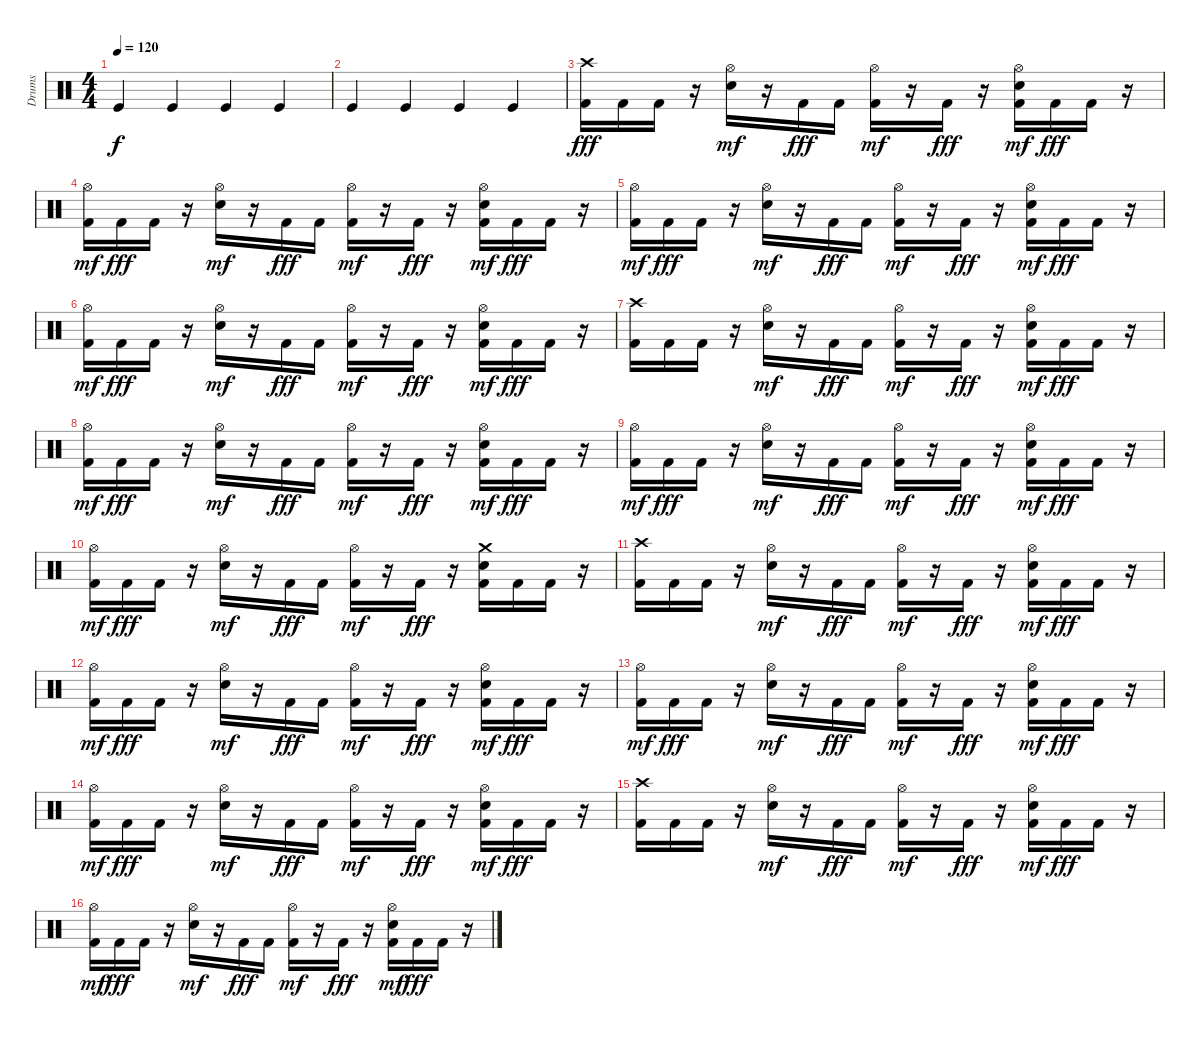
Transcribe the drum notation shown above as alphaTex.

\track ("Drums" "Drums") {instrument percussion}
\staff {score}
\articulation defaults
\ts (4 4)
\tempo 120
\clef neutral
\ks c "Kick (hit)".4{dy f} "Kick (hit)".4 "Kick (hit)".4 "Kick (hit)".4
|
"Kick (hit)".4 "Kick (hit)".4 "Kick (hit)".4 "Kick (hit)".4 |
("Kick (hit) 2" "Crash high (hit)").16{dy fff} "Kick (hit) 2".16 "Kick (hit) 2".16 r.16 ("Electric Snare (hit)" "Hi-Hat (open)").16{dy mf} r.16 "Kick (hit) 2".16{dy fff} "Kick (hit) 2".16 ("Kick (hit) 2" "Hi-Hat (open)").16{dy mf} r.16 "Kick (hit) 2".16{dy fff} r.16 ("Electric Snare (hit)" "Kick (hit) 2" "Hi-Hat (open)").16{dy mf} "Kick (hit) 2".16{dy fff} "Kick (hit) 2".16 r.16 |
("Kick (hit) 2" "Hi-Hat (open)").16{dy mf} "Kick (hit) 2".16{dy fff} "Kick (hit) 2".16 r.16 ("Electric Snare (hit)" "Hi-Hat (open)").16{dy mf} r.16 "Kick (hit) 2".16{dy fff} "Kick (hit) 2".16 ("Kick (hit) 2" "Hi-Hat (open)").16{dy mf} r.16 "Kick (hit) 2".16{dy fff} r.16 ("Electric Snare (hit)" "Kick (hit) 2" "Hi-Hat (open)").16{dy mf} "Kick (hit) 2".16{dy fff} "Kick (hit) 2".16 r.16 |
("Kick (hit) 2" "Hi-Hat (open)").16{dy mf} "Kick (hit) 2".16{dy fff} "Kick (hit) 2".16 r.16 ("Electric Snare (hit)" "Hi-Hat (open)").16{dy mf} r.16 "Kick (hit) 2".16{dy fff} "Kick (hit) 2".16 ("Kick (hit) 2" "Hi-Hat (open)").16{dy mf} r.16 "Kick (hit) 2".16{dy fff} r.16 ("Electric Snare (hit)" "Kick (hit) 2" "Hi-Hat (open)").16{dy mf} "Kick (hit) 2".16{dy fff} "Kick (hit) 2".16 r.16 |
("Kick (hit) 2" "Hi-Hat (open)").16{dy mf} "Kick (hit) 2".16{dy fff} "Kick (hit) 2".16 r.16 ("Electric Snare (hit)" "Hi-Hat (open)").16{dy mf} r.16 "Kick (hit) 2".16{dy fff} "Kick (hit) 2".16 ("Kick (hit) 2" "Hi-Hat (open)").16{dy mf} r.16 "Kick (hit) 2".16{dy fff} r.16 ("Electric Snare (hit)" "Kick (hit) 2" "Hi-Hat (open)").16{dy mf} "Kick (hit) 2".16{dy fff} "Kick (hit) 2".16 r.16 |
("Kick (hit) 2" "Crash high (hit)").16 "Kick (hit) 2".16 "Kick (hit) 2".16 r.16 ("Electric Snare (hit)" "Hi-Hat (open)").16{dy mf} r.16 "Kick (hit) 2".16{dy fff} "Kick (hit) 2".16 ("Kick (hit) 2" "Hi-Hat (open)").16{dy mf} r.16 "Kick (hit) 2".16{dy fff} r.16 ("Electric Snare (hit)" "Kick (hit) 2" "Hi-Hat (open)").16{dy mf} "Kick (hit) 2".16{dy fff} "Kick (hit) 2".16 r.16 |
("Kick (hit) 2" "Hi-Hat (open)").16{dy mf} "Kick (hit) 2".16{dy fff} "Kick (hit) 2".16 r.16 ("Electric Snare (hit)" "Hi-Hat (open)").16{dy mf} r.16 "Kick (hit) 2".16{dy fff} "Kick (hit) 2".16 ("Kick (hit) 2" "Hi-Hat (open)").16{dy mf} r.16 "Kick (hit) 2".16{dy fff} r.16 ("Electric Snare (hit)" "Kick (hit) 2" "Hi-Hat (open)").16{dy mf} "Kick (hit) 2".16{dy fff} "Kick (hit) 2".16 r.16 |
("Kick (hit) 2" "Hi-Hat (open)").16{dy mf} "Kick (hit) 2".16{dy fff} "Kick (hit) 2".16 r.16 ("Electric Snare (hit)" "Hi-Hat (open)").16{dy mf} r.16 "Kick (hit) 2".16{dy fff} "Kick (hit) 2".16 ("Kick (hit) 2" "Hi-Hat (open)").16{dy mf} r.16 "Kick (hit) 2".16{dy fff} r.16 ("Electric Snare (hit)" "Kick (hit) 2" "Hi-Hat (open)").16{dy mf} "Kick (hit) 2".16{dy fff} "Kick (hit) 2".16 r.16 |
("Kick (hit) 2" "Hi-Hat (open)").16{dy mf} "Kick (hit) 2".16{dy fff} "Kick (hit) 2".16 r.16 ("Electric Snare (hit)" "Hi-Hat (open)").16{dy mf} r.16 "Kick (hit) 2".16{dy fff} "Kick (hit) 2".16 ("Kick (hit) 2" "Hi-Hat (open)").16{dy mf} r.16 "Kick (hit) 2".16{dy fff} r.16 ("Electric Snare (hit)" "Kick (hit) 2" "Crash medium (hit)").16 "Kick (hit) 2".16 "Kick (hit) 2".16 r.16 |
("Kick (hit) 2" "Crash high (hit)").16 "Kick (hit) 2".16 "Kick (hit) 2".16 r.16 ("Electric Snare (hit)" "Hi-Hat (open)").16{dy mf} r.16 "Kick (hit) 2".16{dy fff} "Kick (hit) 2".16 ("Kick (hit) 2" "Hi-Hat (open)").16{dy mf} r.16 "Kick (hit) 2".16{dy fff} r.16 ("Electric Snare (hit)" "Kick (hit) 2" "Hi-Hat (open)").16{dy mf} "Kick (hit) 2".16{dy fff} "Kick (hit) 2".16 r.16 |
("Kick (hit) 2" "Hi-Hat (open)").16{dy mf} "Kick (hit) 2".16{dy fff} "Kick (hit) 2".16 r.16 ("Electric Snare (hit)" "Hi-Hat (open)").16{dy mf} r.16 "Kick (hit) 2".16{dy fff} "Kick (hit) 2".16 ("Kick (hit) 2" "Hi-Hat (open)").16{dy mf} r.16 "Kick (hit) 2".16{dy fff} r.16 ("Electric Snare (hit)" "Kick (hit) 2" "Hi-Hat (open)").16{dy mf} "Kick (hit) 2".16{dy fff} "Kick (hit) 2".16 r.16 |
("Kick (hit) 2" "Hi-Hat (open)").16{dy mf} "Kick (hit) 2".16{dy fff} "Kick (hit) 2".16 r.16 ("Electric Snare (hit)" "Hi-Hat (open)").16{dy mf} r.16 "Kick (hit) 2".16{dy fff} "Kick (hit) 2".16 ("Kick (hit) 2" "Hi-Hat (open)").16{dy mf} r.16 "Kick (hit) 2".16{dy fff} r.16 ("Electric Snare (hit)" "Kick (hit) 2" "Hi-Hat (open)").16{dy mf} "Kick (hit) 2".16{dy fff} "Kick (hit) 2".16 r.16 |
("Kick (hit) 2" "Hi-Hat (open)").16{dy mf} "Kick (hit) 2".16{dy fff} "Kick (hit) 2".16 r.16 ("Electric Snare (hit)" "Hi-Hat (open)").16{dy mf} r.16 "Kick (hit) 2".16{dy fff} "Kick (hit) 2".16 ("Kick (hit) 2" "Hi-Hat (open)").16{dy mf} r.16 "Kick (hit) 2".16{dy fff} r.16 ("Electric Snare (hit)" "Kick (hit) 2" "Hi-Hat (open)").16{dy mf} "Kick (hit) 2".16{dy fff} "Kick (hit) 2".16 r.16 |
("Kick (hit) 2" "Crash high (hit)").16 "Kick (hit) 2".16 "Kick (hit) 2".16 r.16 ("Electric Snare (hit)" "Hi-Hat (open)").16{dy mf} r.16 "Kick (hit) 2".16{dy fff} "Kick (hit) 2".16 ("Kick (hit) 2" "Hi-Hat (open)").16{dy mf} r.16 "Kick (hit) 2".16{dy fff} r.16 ("Electric Snare (hit)" "Kick (hit) 2" "Hi-Hat (open)").16{dy mf} "Kick (hit) 2".16{dy fff} "Kick (hit) 2".16 r.16 |
("Kick (hit) 2" "Hi-Hat (open)").16{dy mf} "Kick (hit) 2".16{dy fff} "Kick (hit) 2".16 r.16 ("Electric Snare (hit)" "Hi-Hat (open)").16{dy mf} r.16 "Kick (hit) 2".16{dy fff} "Kick (hit) 2".16 ("Kick (hit) 2" "Hi-Hat (open)").16{dy mf} r.16 "Kick (hit) 2".16{dy fff} r.16 ("Electric Snare (hit)" "Kick (hit) 2" "Hi-Hat (open)").16{dy mf} "Kick (hit) 2".16{dy fff} "Kick (hit) 2".16 r.16
